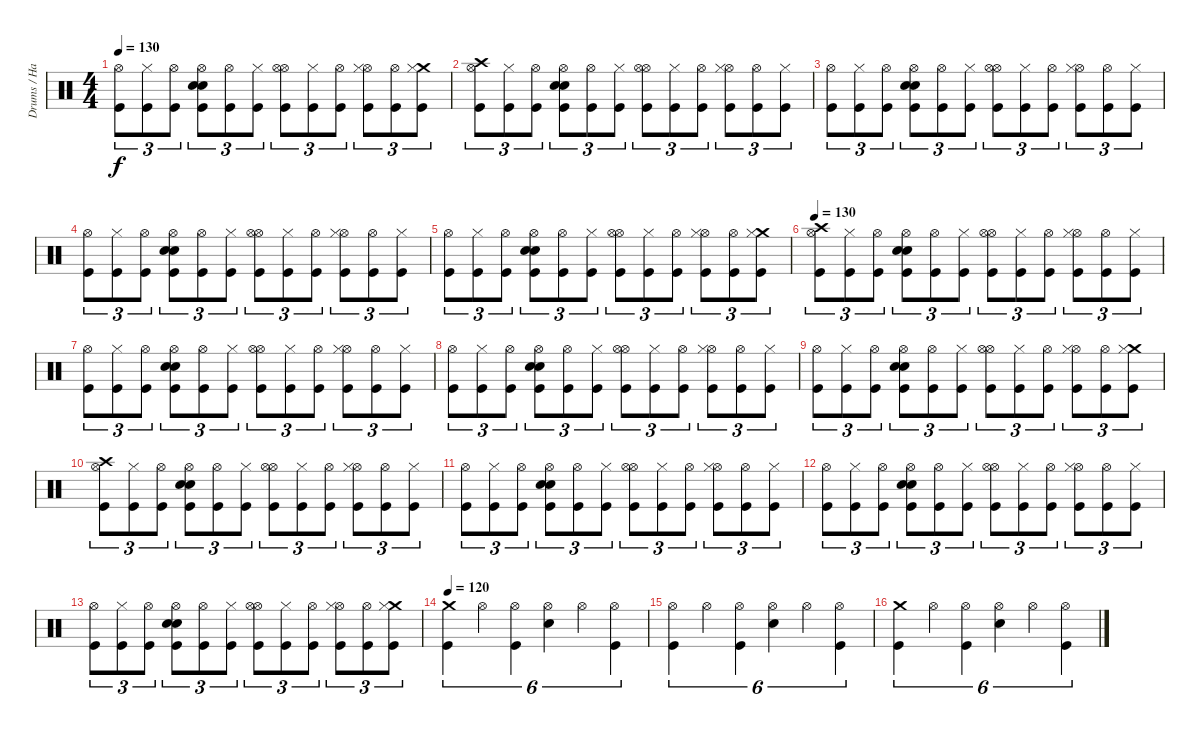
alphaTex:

\track ("Drums / Hammer of God" "Drums / Ha") {instrument percussion}
\staff {score}
\articulation defaults
\ts (4 4)
\tempo 130
\clef neutral
\ks c
("Hi-Hat (open)" "Kick (hit)").8{tu (3 2) dy f} ("Hi-Hat (closed)" "Kick (hit)").8{tu (3 2)} ("Hi-Hat (open)" "Kick (hit)").8{tu (3 2)} ("Snare (hit) 2" "Hi-Hat (open)" "Snare (hit) 2" "Kick (hit)").8{tu (3 2)} ("Hi-Hat (open)" "Kick (hit)").8{tu (3 2)} ("Hi-Hat (closed)" "Kick (hit)").8{tu (3 2)} ("Hi-Hat (open)" "Hi-Hat (open)" "Kick (hit)").8{tu (3 2)} ("Hi-Hat (closed)" "Kick (hit)").8{tu (3 2)} ("Hi-Hat (open)" "Kick (hit)").8{tu (3 2)} ("Hi-Hat (open)" "Hi-Hat (closed)" "Kick (hit)").8{tu (3 2)} ("Hi-Hat (open)" "Kick (hit)").8{tu (3 2)} ("Crash medium (hit)" "Hi-Hat (closed)" "Kick (hit)").8{tu (3 2)} |
("Crash high (hit)" "Hi-Hat (open)" "Kick (hit)").8{tu (3 2)} ("Hi-Hat (closed)" "Kick (hit)").8{tu (3 2)} ("Hi-Hat (open)" "Kick (hit)").8{tu (3 2)} ("Snare (hit) 2" "Hi-Hat (open)" "Snare (hit) 2" "Kick (hit)").8{tu (3 2)} ("Hi-Hat (open)" "Kick (hit)").8{tu (3 2)} ("Hi-Hat (closed)" "Kick (hit)").8{tu (3 2)} ("Hi-Hat (open)" "Hi-Hat (open)" "Kick (hit)").8{tu (3 2)} ("Hi-Hat (closed)" "Kick (hit)").8{tu (3 2)} ("Hi-Hat (open)" "Kick (hit)").8{tu (3 2)} ("Hi-Hat (open)" "Hi-Hat (closed)" "Kick (hit)").8{tu (3 2)} ("Hi-Hat (open)" "Kick (hit)").8{tu (3 2)} ("Hi-Hat (closed)" "Kick (hit)").8{tu (3 2)} |
("Hi-Hat (open)" "Kick (hit)").8{tu (3 2)} ("Hi-Hat (closed)" "Kick (hit)").8{tu (3 2)} ("Hi-Hat (open)" "Kick (hit)").8{tu (3 2)} ("Snare (hit) 2" "Hi-Hat (open)" "Snare (hit) 2" "Kick (hit)").8{tu (3 2)} ("Hi-Hat (open)" "Kick (hit)").8{tu (3 2)} ("Hi-Hat (closed)" "Kick (hit)").8{tu (3 2)} ("Hi-Hat (open)" "Hi-Hat (open)" "Kick (hit)").8{tu (3 2)} ("Hi-Hat (closed)" "Kick (hit)").8{tu (3 2)} ("Hi-Hat (open)" "Kick (hit)").8{tu (3 2)} ("Hi-Hat (open)" "Hi-Hat (closed)" "Kick (hit)").8{tu (3 2)} ("Hi-Hat (open)" "Kick (hit)").8{tu (3 2)} ("Hi-Hat (closed)" "Kick (hit)").8{tu (3 2)} |
("Hi-Hat (open)" "Kick (hit)").8{tu (3 2)} ("Hi-Hat (closed)" "Kick (hit)").8{tu (3 2)} ("Hi-Hat (open)" "Kick (hit)").8{tu (3 2)} ("Snare (hit) 2" "Hi-Hat (open)" "Snare (hit) 2" "Kick (hit)").8{tu (3 2)} ("Hi-Hat (open)" "Kick (hit)").8{tu (3 2)} ("Hi-Hat (closed)" "Kick (hit)").8{tu (3 2)} ("Hi-Hat (open)" "Hi-Hat (open)" "Kick (hit)").8{tu (3 2)} ("Hi-Hat (closed)" "Kick (hit)").8{tu (3 2)} ("Hi-Hat (open)" "Kick (hit)").8{tu (3 2)} ("Hi-Hat (open)" "Hi-Hat (closed)" "Kick (hit)").8{tu (3 2)} ("Hi-Hat (open)" "Kick (hit)").8{tu (3 2)} ("Hi-Hat (closed)" "Kick (hit)").8{tu (3 2)} |
("Hi-Hat (open)" "Kick (hit)").8{tu (3 2)} ("Hi-Hat (closed)" "Kick (hit)").8{tu (3 2)} ("Hi-Hat (open)" "Kick (hit)").8{tu (3 2)} ("Snare (hit) 2" "Hi-Hat (open)" "Snare (hit) 2" "Kick (hit)").8{tu (3 2)} ("Hi-Hat (open)" "Kick (hit)").8{tu (3 2)} ("Hi-Hat (closed)" "Kick (hit)").8{tu (3 2)} ("Hi-Hat (open)" "Hi-Hat (open)" "Kick (hit)").8{tu (3 2)} ("Hi-Hat (closed)" "Kick (hit)").8{tu (3 2)} ("Hi-Hat (open)" "Kick (hit)").8{tu (3 2)} ("Hi-Hat (open)" "Hi-Hat (closed)" "Kick (hit)").8{tu (3 2)} ("Hi-Hat (open)" "Kick (hit)").8{tu (3 2)} ("Crash medium (hit)" "Hi-Hat (closed)" "Kick (hit)").8{tu (3 2)} |
\tempo 130
("Crash high (hit)" "Hi-Hat (open)" "Kick (hit)").8{tu (3 2)} ("Hi-Hat (closed)" "Kick (hit)").8{tu (3 2)} ("Hi-Hat (open)" "Kick (hit)").8{tu (3 2)} ("Snare (hit) 2" "Hi-Hat (open)" "Snare (hit) 2" "Kick (hit)").8{tu (3 2)} ("Hi-Hat (open)" "Kick (hit)").8{tu (3 2)} ("Hi-Hat (closed)" "Kick (hit)").8{tu (3 2)} ("Hi-Hat (open)" "Hi-Hat (open)" "Kick (hit)").8{tu (3 2)} ("Hi-Hat (closed)" "Kick (hit)").8{tu (3 2)} ("Hi-Hat (open)" "Kick (hit)").8{tu (3 2)} ("Hi-Hat (open)" "Hi-Hat (closed)" "Kick (hit)").8{tu (3 2)} ("Hi-Hat (open)" "Kick (hit)").8{tu (3 2)} ("Hi-Hat (closed)" "Kick (hit)").8{tu (3 2)} |
("Hi-Hat (open)" "Kick (hit)").8{tu (3 2)} ("Hi-Hat (closed)" "Kick (hit)").8{tu (3 2)} ("Hi-Hat (open)" "Kick (hit)").8{tu (3 2)} ("Snare (hit) 2" "Hi-Hat (open)" "Snare (hit) 2" "Kick (hit)").8{tu (3 2)} ("Hi-Hat (open)" "Kick (hit)").8{tu (3 2)} ("Hi-Hat (closed)" "Kick (hit)").8{tu (3 2)} ("Hi-Hat (open)" "Hi-Hat (open)" "Kick (hit)").8{tu (3 2)} ("Hi-Hat (closed)" "Kick (hit)").8{tu (3 2)} ("Hi-Hat (open)" "Kick (hit)").8{tu (3 2)} ("Hi-Hat (open)" "Hi-Hat (closed)" "Kick (hit)").8{tu (3 2)} ("Hi-Hat (open)" "Kick (hit)").8{tu (3 2)} ("Hi-Hat (closed)" "Kick (hit)").8{tu (3 2)} |
("Hi-Hat (open)" "Kick (hit)").8{tu (3 2)} ("Hi-Hat (closed)" "Kick (hit)").8{tu (3 2)} ("Hi-Hat (open)" "Kick (hit)").8{tu (3 2)} ("Snare (hit) 2" "Hi-Hat (open)" "Snare (hit) 2" "Kick (hit)").8{tu (3 2)} ("Hi-Hat (open)" "Kick (hit)").8{tu (3 2)} ("Hi-Hat (closed)" "Kick (hit)").8{tu (3 2)} ("Hi-Hat (open)" "Hi-Hat (open)" "Kick (hit)").8{tu (3 2)} ("Hi-Hat (closed)" "Kick (hit)").8{tu (3 2)} ("Hi-Hat (open)" "Kick (hit)").8{tu (3 2)} ("Hi-Hat (open)" "Hi-Hat (closed)" "Kick (hit)").8{tu (3 2)} ("Hi-Hat (open)" "Kick (hit)").8{tu (3 2)} ("Hi-Hat (closed)" "Kick (hit)").8{tu (3 2)} |
("Hi-Hat (open)" "Kick (hit)").8{tu (3 2)} ("Hi-Hat (closed)" "Kick (hit)").8{tu (3 2)} ("Hi-Hat (open)" "Kick (hit)").8{tu (3 2)} ("Snare (hit) 2" "Hi-Hat (open)" "Snare (hit) 2" "Kick (hit)").8{tu (3 2)} ("Hi-Hat (open)" "Kick (hit)").8{tu (3 2)} ("Hi-Hat (closed)" "Kick (hit)").8{tu (3 2)} ("Hi-Hat (open)" "Hi-Hat (open)" "Kick (hit)").8{tu (3 2)} ("Hi-Hat (closed)" "Kick (hit)").8{tu (3 2)} ("Hi-Hat (open)" "Kick (hit)").8{tu (3 2)} ("Hi-Hat (open)" "Hi-Hat (closed)" "Kick (hit)").8{tu (3 2)} ("Hi-Hat (open)" "Kick (hit)").8{tu (3 2)} ("Crash medium (hit)" "Hi-Hat (closed)" "Kick (hit)").8{tu (3 2)} |
("Crash high (hit)" "Hi-Hat (open)" "Kick (hit)").8{tu (3 2)} ("Hi-Hat (closed)" "Kick (hit)").8{tu (3 2)} ("Hi-Hat (open)" "Kick (hit)").8{tu (3 2)} ("Snare (hit) 2" "Hi-Hat (open)" "Snare (hit) 2" "Kick (hit)").8{tu (3 2)} ("Hi-Hat (open)" "Kick (hit)").8{tu (3 2)} ("Hi-Hat (closed)" "Kick (hit)").8{tu (3 2)} ("Hi-Hat (open)" "Hi-Hat (open)" "Kick (hit)").8{tu (3 2)} ("Hi-Hat (closed)" "Kick (hit)").8{tu (3 2)} ("Hi-Hat (open)" "Kick (hit)").8{tu (3 2)} ("Hi-Hat (open)" "Hi-Hat (closed)" "Kick (hit)").8{tu (3 2)} ("Hi-Hat (open)" "Kick (hit)").8{tu (3 2)} ("Hi-Hat (closed)" "Kick (hit)").8{tu (3 2)} |
("Hi-Hat (open)" "Kick (hit)").8{tu (3 2)} ("Hi-Hat (closed)" "Kick (hit)").8{tu (3 2)} ("Hi-Hat (open)" "Kick (hit)").8{tu (3 2)} ("Snare (hit) 2" "Hi-Hat (open)" "Snare (hit) 2" "Kick (hit)").8{tu (3 2)} ("Hi-Hat (open)" "Kick (hit)").8{tu (3 2)} ("Hi-Hat (closed)" "Kick (hit)").8{tu (3 2)} ("Hi-Hat (open)" "Hi-Hat (open)" "Kick (hit)").8{tu (3 2)} ("Hi-Hat (closed)" "Kick (hit)").8{tu (3 2)} ("Hi-Hat (open)" "Kick (hit)").8{tu (3 2)} ("Hi-Hat (open)" "Hi-Hat (closed)" "Kick (hit)").8{tu (3 2)} ("Hi-Hat (open)" "Kick (hit)").8{tu (3 2)} ("Hi-Hat (closed)" "Kick (hit)").8{tu (3 2)} |
("Hi-Hat (open)" "Kick (hit)").8{tu (3 2)} ("Hi-Hat (closed)" "Kick (hit)").8{tu (3 2)} ("Hi-Hat (open)" "Kick (hit)").8{tu (3 2)} ("Snare (hit) 2" "Hi-Hat (open)" "Snare (hit) 2" "Kick (hit)").8{tu (3 2)} ("Hi-Hat (open)" "Kick (hit)").8{tu (3 2)} ("Hi-Hat (closed)" "Kick (hit)").8{tu (3 2)} ("Hi-Hat (open)" "Hi-Hat (open)" "Kick (hit)").8{tu (3 2)} ("Hi-Hat (closed)" "Kick (hit)").8{tu (3 2)} ("Hi-Hat (open)" "Kick (hit)").8{tu (3 2)} ("Hi-Hat (open)" "Hi-Hat (closed)" "Kick (hit)").8{tu (3 2)} ("Hi-Hat (open)" "Kick (hit)").8{tu (3 2)} ("Hi-Hat (closed)" "Kick (hit)").8{tu (3 2)} |
("Hi-Hat (open)" "Kick (hit)").8{tu (3 2)} ("Hi-Hat (closed)" "Kick (hit)").8{tu (3 2)} ("Hi-Hat (open)" "Kick (hit)").8{tu (3 2)} ("Snare (hit) 2" "Hi-Hat (open)" "Snare (hit) 2" "Kick (hit)").8{tu (3 2)} ("Hi-Hat (open)" "Kick (hit)").8{tu (3 2)} ("Hi-Hat (closed)" "Kick (hit)").8{tu (3 2)} ("Hi-Hat (open)" "Hi-Hat (open)" "Kick (hit)").8{tu (3 2)} ("Hi-Hat (closed)" "Kick (hit)").8{tu (3 2)} ("Hi-Hat (open)" "Kick (hit)").8{tu (3 2)} ("Hi-Hat (open)" "Hi-Hat (closed)" "Kick (hit)").8{tu (3 2)} ("Hi-Hat (open)" "Kick (hit)").8{tu (3 2)} ("Crash medium (hit)" "Hi-Hat (closed)" "Kick (hit)").8{tu (3 2)} |
\tempo 120
("Kick (hit)" "Crash medium (hit)").4{tu (6 4)} "Hi-Hat (open)".4{tu (6 4)} ("Kick (hit)" "Hi-Hat (open)").4{tu (6 4)} ("Snare (hit) 2" "Hi-Hat (open)").4{tu (6 4)} "Hi-Hat (open)".4{tu (6 4)} ("Kick (hit)" "Hi-Hat (open)").4{tu (6 4)} |
("Kick (hit)" "Hi-Hat (open)").4{tu (6 4)} "Hi-Hat (open)".4{tu (6 4)} ("Kick (hit)" "Hi-Hat (open)").4{tu (6 4)} ("Snare (hit) 2" "Hi-Hat (open)").4{tu (6 4)} "Hi-Hat (open)".4{tu (6 4)} ("Kick (hit)" "Hi-Hat (open)").4{tu (6 4)} |
("Kick (hit)" "Crash medium (hit)").4{tu (6 4)} "Hi-Hat (open)".4{tu (6 4)} ("Kick (hit)" "Hi-Hat (open)").4{tu (6 4)} ("Snare (hit) 2" "Hi-Hat (open)").4{tu (6 4)} "Hi-Hat (open)".4{tu (6 4)} ("Kick (hit)" "Hi-Hat (open)").4{tu (6 4)}
